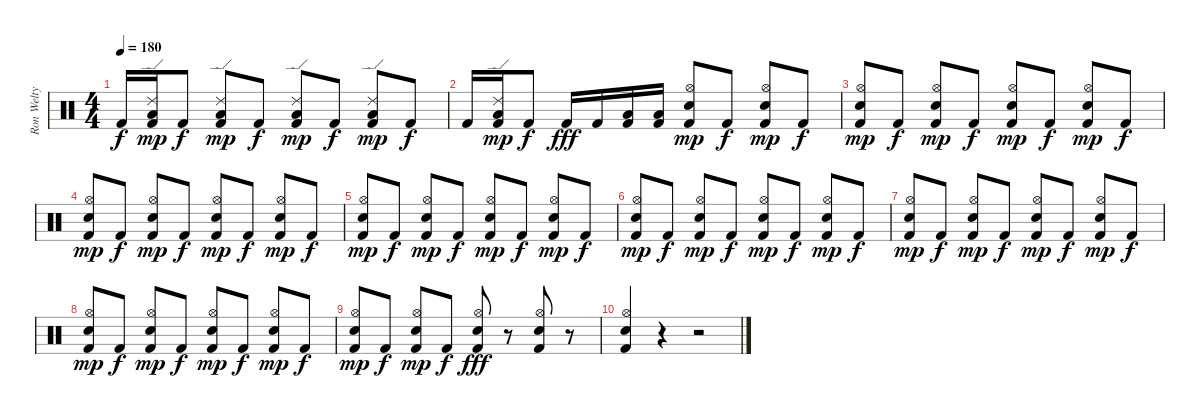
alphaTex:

\track ("Ron Welty" "Ron Welty") {instrument percussion}
\staff {score}
\articulation defaults
\ts (4 4)
\tempo 180
\clef neutral
\ks c "Kick (hit) 2".16{dy f}
("Ride (edge) 2" "Low Tom (hit)" "Kick (hit) 2").16{dy mp} "Kick (hit) 2".8{dy f} ("Ride (edge) 2" "Low Tom (hit)" "Kick (hit) 2").8{dy mp} "Kick (hit) 2".8{dy f} ("Ride (edge) 2" "Low Tom (hit)" "Kick (hit) 2").8{dy mp} "Kick (hit) 2".8{dy f} ("Ride (edge) 2" "Low Tom (hit)" "Kick (hit) 2").8{dy mp} "Kick (hit) 2".8{dy f} |
"Kick (hit) 2".16 ("Ride (edge) 2" "Low Tom (hit)" "Kick (hit) 2").16{dy mp} "Kick (hit) 2".8{dy f} "Kick (hit) 2".16{dy fff} "Kick (hit) 2".16 ("Low Floor Tom (hit)" "Kick (hit) 2").16 ("Low Tom (hit)" "Kick (hit) 2").16 ("Hi-Hat (open)" "Electric Snare (hit)" "Kick (hit) 2").8{dy mp} "Kick (hit) 2".8{dy f} ("Hi-Hat (open)" "Electric Snare (hit)" "Kick (hit) 2").8{dy mp} "Kick (hit) 2".8{dy f} |
("Hi-Hat (open)" "Electric Snare (hit)" "Kick (hit) 2").8{dy mp} "Kick (hit) 2".8{dy f} ("Hi-Hat (open)" "Electric Snare (hit)" "Kick (hit) 2").8{dy mp} "Kick (hit) 2".8{dy f} ("Hi-Hat (open)" "Electric Snare (hit)" "Kick (hit) 2").8{dy mp} "Kick (hit) 2".8{dy f} ("Hi-Hat (open)" "Electric Snare (hit)" "Kick (hit) 2").8{dy mp} "Kick (hit) 2".8{dy f} |
("Hi-Hat (open)" "Electric Snare (hit)" "Kick (hit) 2").8{dy mp} "Kick (hit) 2".8{dy f} ("Hi-Hat (open)" "Electric Snare (hit)" "Kick (hit) 2").8{dy mp} "Kick (hit) 2".8{dy f} ("Hi-Hat (open)" "Electric Snare (hit)" "Kick (hit) 2").8{dy mp} "Kick (hit) 2".8{dy f} ("Hi-Hat (open)" "Electric Snare (hit)" "Kick (hit) 2").8{dy mp} "Kick (hit) 2".8{dy f} |
("Hi-Hat (open)" "Electric Snare (hit)" "Kick (hit) 2").8{dy mp} "Kick (hit) 2".8{dy f} ("Hi-Hat (open)" "Electric Snare (hit)" "Kick (hit) 2").8{dy mp} "Kick (hit) 2".8{dy f} ("Hi-Hat (open)" "Electric Snare (hit)" "Kick (hit) 2").8{dy mp} "Kick (hit) 2".8{dy f} ("Hi-Hat (open)" "Electric Snare (hit)" "Kick (hit) 2").8{dy mp} "Kick (hit) 2".8{dy f} |
("Hi-Hat (open)" "Electric Snare (hit)" "Kick (hit) 2").8{dy mp} "Kick (hit) 2".8{dy f} ("Hi-Hat (open)" "Electric Snare (hit)" "Kick (hit) 2").8{dy mp} "Kick (hit) 2".8{dy f} ("Hi-Hat (open)" "Electric Snare (hit)" "Kick (hit) 2").8{dy mp} "Kick (hit) 2".8{dy f} ("Hi-Hat (open)" "Electric Snare (hit)" "Kick (hit) 2").8{dy mp} "Kick (hit) 2".8{dy f} |
("Hi-Hat (open)" "Electric Snare (hit)" "Kick (hit) 2").8{dy mp} "Kick (hit) 2".8{dy f} ("Hi-Hat (open)" "Electric Snare (hit)" "Kick (hit) 2").8{dy mp} "Kick (hit) 2".8{dy f} ("Hi-Hat (open)" "Electric Snare (hit)" "Kick (hit) 2").8{dy mp} "Kick (hit) 2".8{dy f} ("Hi-Hat (open)" "Electric Snare (hit)" "Kick (hit) 2").8{dy mp} "Kick (hit) 2".8{dy f} |
("Hi-Hat (open)" "Electric Snare (hit)" "Kick (hit) 2").8{dy mp} "Kick (hit) 2".8{dy f} ("Hi-Hat (open)" "Electric Snare (hit)" "Kick (hit) 2").8{dy mp} "Kick (hit) 2".8{dy f} ("Hi-Hat (open)" "Electric Snare (hit)" "Kick (hit) 2").8{dy mp} "Kick (hit) 2".8{dy f} ("Hi-Hat (open)" "Electric Snare (hit)" "Kick (hit) 2").8{dy mp} "Kick (hit) 2".8{dy f} |
("Hi-Hat (open)" "Electric Snare (hit)" "Kick (hit) 2").8{dy mp} "Kick (hit) 2".8{dy f} ("Hi-Hat (open)" "Electric Snare (hit)" "Kick (hit) 2").8{dy mp} "Kick (hit) 2".8{dy f} ("Hi-Hat (open)" "Electric Snare (hit)" "Kick (hit) 2").8{dy fff} r.8 ("Hi-Hat (open)" "Electric Snare (hit)" "Kick (hit) 2").8 r.8 |
("Hi-Hat (open)" "Electric Snare (hit)" "Kick (hit) 2").4 r.4 r.2
